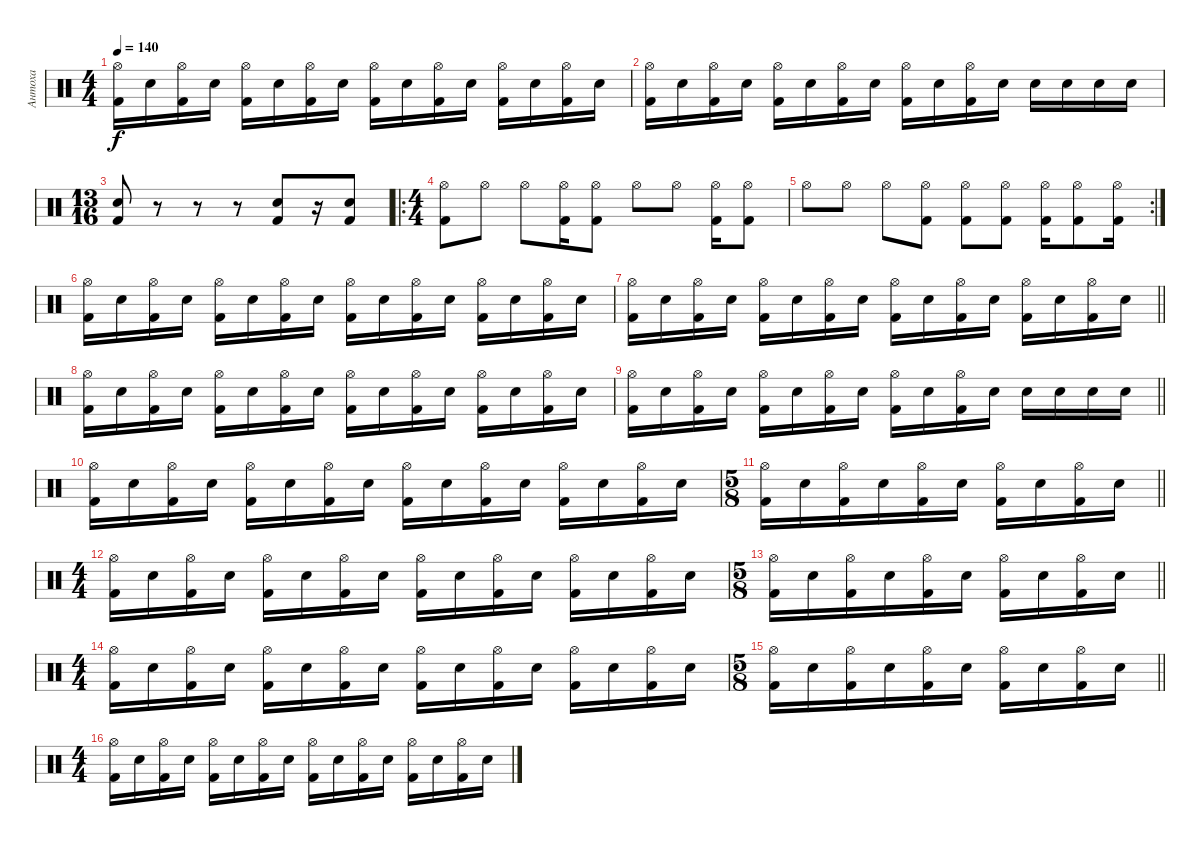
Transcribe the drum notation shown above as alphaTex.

\track ("Антоха" "Антоха") {instrument percussion}
\staff {score}
\articulation defaults
\ts (4 4)
\tempo 140
\clef neutral
\ks c
("Hi-Hat (open)" "Kick (hit) 2").16{dy f} "Electric Snare (hit)".16 ("Hi-Hat (open)" "Kick (hit) 2").16 "Electric Snare (hit)".16 ("Hi-Hat (open)" "Kick (hit) 2").16 "Electric Snare (hit)".16 ("Hi-Hat (open)" "Kick (hit) 2").16 "Electric Snare (hit)".16 ("Hi-Hat (open)" "Kick (hit) 2").16 "Electric Snare (hit)".16 ("Hi-Hat (open)" "Kick (hit) 2").16 "Electric Snare (hit)".16 ("Hi-Hat (open)" "Kick (hit) 2").16 "Electric Snare (hit)".16 ("Hi-Hat (open)" "Kick (hit) 2").16 "Electric Snare (hit)".16 |
("Hi-Hat (open)" "Kick (hit) 2").16 "Electric Snare (hit)".16 ("Hi-Hat (open)" "Kick (hit) 2").16 "Electric Snare (hit)".16 ("Hi-Hat (open)" "Kick (hit) 2").16 "Electric Snare (hit)".16 ("Hi-Hat (open)" "Kick (hit) 2").16 "Electric Snare (hit)".16 ("Hi-Hat (open)" "Kick (hit) 2").16 "Electric Snare (hit)".16 ("Hi-Hat (open)" "Kick (hit) 2").16 "Electric Snare (hit)".16 "Electric Snare (hit)".16 "Electric Snare (hit)".16 "Electric Snare (hit)".16 "Electric Snare (hit)".16 |
\ts (13 16)
("Kick (hit) 2" "Electric Snare (hit)").8 r.8 r.8 r.8 ("Kick (hit) 2" "Electric Snare (hit)").8 r.16 ("Kick (hit) 2" "Electric Snare (hit)").8 |
\ro
\ts (4 4)
("Hi-Hat (open)" "Kick (hit) 2").8 "Hi-Hat (open)".8 "Hi-Hat (open)".8 ("Hi-Hat (open)" "Kick (hit) 2").16 ("Hi-Hat (open)" "Kick (hit) 2").8 "Hi-Hat (open)".8 "Hi-Hat (open)".8 ("Hi-Hat (open)" "Kick (hit) 2").16 ("Hi-Hat (open)" "Kick (hit) 2").8 |
\rc 2 "Hi-Hat (open)".8 "Hi-Hat (open)".8 "Hi-Hat (open)".8
("Hi-Hat (open)" "Kick (hit) 2").8 ("Hi-Hat (open)" "Kick (hit) 2").8 ("Hi-Hat (open)" "Kick (hit) 2").8 ("Hi-Hat (open)" "Kick (hit) 2").16 ("Hi-Hat (open)" "Kick (hit) 2").8 ("Hi-Hat (open)" "Kick (hit) 2").16 |
("Hi-Hat (open)" "Kick (hit) 2").16 "Electric Snare (hit)".16 ("Hi-Hat (open)" "Kick (hit) 2").16 "Electric Snare (hit)".16 ("Hi-Hat (open)" "Kick (hit) 2").16 "Electric Snare (hit)".16 ("Hi-Hat (open)" "Kick (hit) 2").16 "Electric Snare (hit)".16 ("Hi-Hat (open)" "Kick (hit) 2").16 "Electric Snare (hit)".16 ("Hi-Hat (open)" "Kick (hit) 2").16 "Electric Snare (hit)".16 ("Hi-Hat (open)" "Kick (hit) 2").16 "Electric Snare (hit)".16 ("Hi-Hat (open)" "Kick (hit) 2").16 "Electric Snare (hit)".16 |
\barLineRight lightlight
("Hi-Hat (open)" "Kick (hit) 2").16 "Electric Snare (hit)".16 ("Hi-Hat (open)" "Kick (hit) 2").16 "Electric Snare (hit)".16 ("Hi-Hat (open)" "Kick (hit) 2").16 "Electric Snare (hit)".16 ("Hi-Hat (open)" "Kick (hit) 2").16 "Electric Snare (hit)".16 ("Hi-Hat (open)" "Kick (hit) 2").16 "Electric Snare (hit)".16 ("Hi-Hat (open)" "Kick (hit) 2").16 "Electric Snare (hit)".16 ("Hi-Hat (open)" "Kick (hit) 2").16 "Electric Snare (hit)".16 ("Hi-Hat (open)" "Kick (hit) 2").16 "Electric Snare (hit)".16 |
("Hi-Hat (open)" "Kick (hit) 2").16 "Electric Snare (hit)".16 ("Hi-Hat (open)" "Kick (hit) 2").16 "Electric Snare (hit)".16 ("Hi-Hat (open)" "Kick (hit) 2").16 "Electric Snare (hit)".16 ("Hi-Hat (open)" "Kick (hit) 2").16 "Electric Snare (hit)".16 ("Hi-Hat (open)" "Kick (hit) 2").16 "Electric Snare (hit)".16 ("Hi-Hat (open)" "Kick (hit) 2").16 "Electric Snare (hit)".16 ("Hi-Hat (open)" "Kick (hit) 2").16 "Electric Snare (hit)".16 ("Hi-Hat (open)" "Kick (hit) 2").16 "Electric Snare (hit)".16 |
\barLineRight lightlight
("Hi-Hat (open)" "Kick (hit) 2").16 "Electric Snare (hit)".16 ("Hi-Hat (open)" "Kick (hit) 2").16 "Electric Snare (hit)".16 ("Hi-Hat (open)" "Kick (hit) 2").16 "Electric Snare (hit)".16 ("Hi-Hat (open)" "Kick (hit) 2").16 "Electric Snare (hit)".16 ("Hi-Hat (open)" "Kick (hit) 2").16 "Electric Snare (hit)".16 ("Hi-Hat (open)" "Kick (hit) 2").16 "Electric Snare (hit)".16 "Electric Snare (hit)".16 "Electric Snare (hit)".16 "Electric Snare (hit)".16 "Electric Snare (hit)".16 |
("Hi-Hat (open)" "Kick (hit) 2").16 "Electric Snare (hit)".16 ("Hi-Hat (open)" "Kick (hit) 2").16 "Electric Snare (hit)".16 ("Hi-Hat (open)" "Kick (hit) 2").16 "Electric Snare (hit)".16 ("Hi-Hat (open)" "Kick (hit) 2").16 "Electric Snare (hit)".16 ("Hi-Hat (open)" "Kick (hit) 2").16 "Electric Snare (hit)".16 ("Hi-Hat (open)" "Kick (hit) 2").16 "Electric Snare (hit)".16 ("Hi-Hat (open)" "Kick (hit) 2").16 "Electric Snare (hit)".16 ("Hi-Hat (open)" "Kick (hit) 2").16 "Electric Snare (hit)".16 |
\ts (5 8)
\barLineRight lightlight
("Hi-Hat (open)" "Kick (hit) 2").16 "Electric Snare (hit)".16 ("Hi-Hat (open)" "Kick (hit) 2").16 "Electric Snare (hit)".16 ("Hi-Hat (open)" "Kick (hit) 2").16 "Electric Snare (hit)".16 ("Hi-Hat (open)" "Kick (hit) 2").16 "Electric Snare (hit)".16 ("Hi-Hat (open)" "Kick (hit) 2").16 "Electric Snare (hit)".16 |
\ts (4 4)
("Hi-Hat (open)" "Kick (hit) 2").16 "Electric Snare (hit)".16 ("Hi-Hat (open)" "Kick (hit) 2").16 "Electric Snare (hit)".16 ("Hi-Hat (open)" "Kick (hit) 2").16 "Electric Snare (hit)".16 ("Hi-Hat (open)" "Kick (hit) 2").16 "Electric Snare (hit)".16 ("Hi-Hat (open)" "Kick (hit) 2").16 "Electric Snare (hit)".16 ("Hi-Hat (open)" "Kick (hit) 2").16 "Electric Snare (hit)".16 ("Hi-Hat (open)" "Kick (hit) 2").16 "Electric Snare (hit)".16 ("Hi-Hat (open)" "Kick (hit) 2").16 "Electric Snare (hit)".16 |
\ts (5 8)
\barLineRight lightlight
("Hi-Hat (open)" "Kick (hit) 2").16 "Electric Snare (hit)".16 ("Hi-Hat (open)" "Kick (hit) 2").16 "Electric Snare (hit)".16 ("Hi-Hat (open)" "Kick (hit) 2").16 "Electric Snare (hit)".16 ("Hi-Hat (open)" "Kick (hit) 2").16 "Electric Snare (hit)".16 ("Hi-Hat (open)" "Kick (hit) 2").16 "Electric Snare (hit)".16 |
\ts (4 4)
("Hi-Hat (open)" "Kick (hit) 2").16 "Electric Snare (hit)".16 ("Hi-Hat (open)" "Kick (hit) 2").16 "Electric Snare (hit)".16 ("Hi-Hat (open)" "Kick (hit) 2").16 "Electric Snare (hit)".16 ("Hi-Hat (open)" "Kick (hit) 2").16 "Electric Snare (hit)".16 ("Hi-Hat (open)" "Kick (hit) 2").16 "Electric Snare (hit)".16 ("Hi-Hat (open)" "Kick (hit) 2").16 "Electric Snare (hit)".16 ("Hi-Hat (open)" "Kick (hit) 2").16 "Electric Snare (hit)".16 ("Hi-Hat (open)" "Kick (hit) 2").16 "Electric Snare (hit)".16 |
\ts (5 8)
\barLineRight lightlight
("Hi-Hat (open)" "Kick (hit) 2").16 "Electric Snare (hit)".16 ("Hi-Hat (open)" "Kick (hit) 2").16 "Electric Snare (hit)".16 ("Hi-Hat (open)" "Kick (hit) 2").16 "Electric Snare (hit)".16 ("Hi-Hat (open)" "Kick (hit) 2").16 "Electric Snare (hit)".16 ("Hi-Hat (open)" "Kick (hit) 2").16 "Electric Snare (hit)".16 |
\ts (4 4)
("Hi-Hat (open)" "Kick (hit) 2").16 "Electric Snare (hit)".16 ("Hi-Hat (open)" "Kick (hit) 2").16 "Electric Snare (hit)".16 ("Hi-Hat (open)" "Kick (hit) 2").16 "Electric Snare (hit)".16 ("Hi-Hat (open)" "Kick (hit) 2").16 "Electric Snare (hit)".16 ("Hi-Hat (open)" "Kick (hit) 2").16 "Electric Snare (hit)".16 ("Hi-Hat (open)" "Kick (hit) 2").16 "Electric Snare (hit)".16 ("Hi-Hat (open)" "Kick (hit) 2").16 "Electric Snare (hit)".16 ("Hi-Hat (open)" "Kick (hit) 2").16 "Electric Snare (hit)".16
